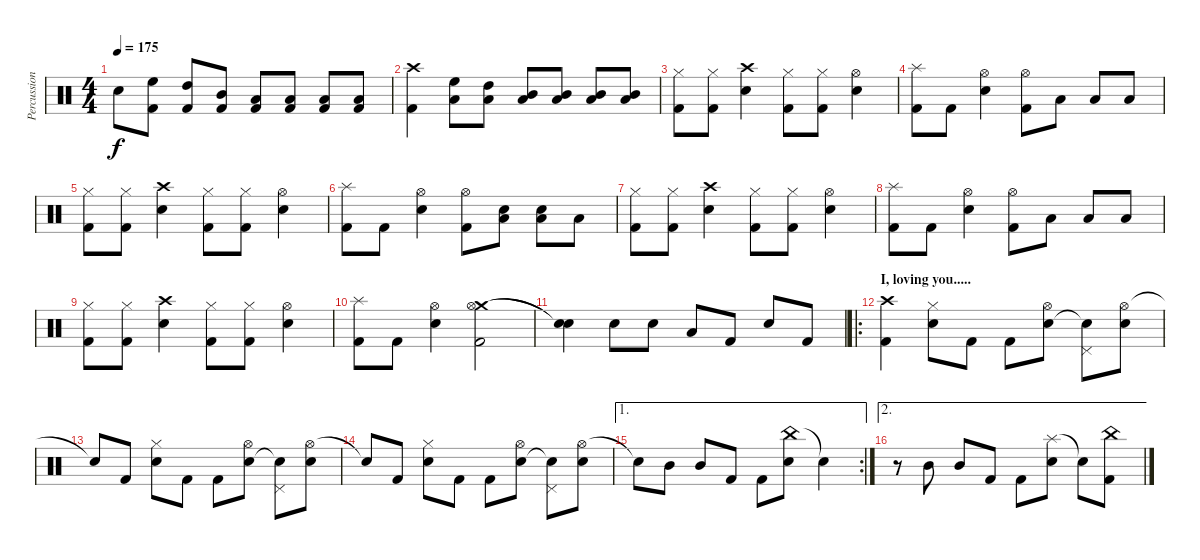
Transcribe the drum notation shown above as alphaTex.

\track ("Percussion" "Percussion") {instrument percussion}
\staff {score}
\articulation defaults
\ts (4 4)
\tempo 175
\clef neutral
\ks c "Snare (hit)"{t}.8{dy f}
("High Floor Tom (hit)" "Kick (hit) 2").8 ("High Tom (hit)" "Kick (hit) 2").8 ("Mid Tom (hit)" "Kick (hit) 2").8 ("Low Tom (hit)" "Kick (hit) 2").8 ("Low Tom (hit)" "Kick (hit) 2").8 ("Low Tom (hit)" "Kick (hit) 2").8 ("Low Tom (hit)" "Kick (hit) 2").8 |
("Crash high (hit)" "Kick (hit) 2").4 ("Low Tom (hit)" "High Floor Tom (hit)").8 ("Low Tom (hit)" "High Tom (hit)").8 ("Low Tom (hit)" "Mid Tom (hit)").8 ("Low Tom (hit)" "Mid Tom (hit)").8 ("Low Tom (hit)" "Mid Tom (hit)").8 ("Low Tom (hit)" "Mid Tom (hit)").8 |
("Hi-Hat (closed)" "Kick (hit) 2").8 ("Hi-Hat (closed)" "Kick (hit) 2").8 ("Crash high (hit)" "Snare (hit) 2").4 ("Hi-Hat (closed)" "Kick (hit) 2").8 ("Hi-Hat (closed)" "Kick (hit) 2").8 ("Hi-Hat (open)" "Snare (hit) 2").4 |
("Splash (hit)" "Kick (hit) 2").8 "Kick (hit) 2".8 ("Hi-Hat (open)" "Snare (hit) 2").4 ("Hi-Hat (open)" "Kick (hit) 2").8 "Low Tom (hit)".8 "Low Tom (hit)".8 "Low Tom (hit)".8 |
("Hi-Hat (closed)" "Kick (hit) 2").8 ("Hi-Hat (closed)" "Kick (hit) 2").8 ("Crash high (hit)" "Snare (hit) 2").4 ("Hi-Hat (closed)" "Kick (hit) 2").8 ("Hi-Hat (closed)" "Kick (hit) 2").8 ("Hi-Hat (open)" "Snare (hit) 2").4 |
("Splash (hit)" "Kick (hit) 2").8 "Kick (hit) 2".8 ("Hi-Hat (open)" "Snare (hit) 2").4 ("Hi-Hat (open)" "Kick (hit) 2").8 ("Low Tom (hit)" "Snare (hit) 2").8 ("Low Tom (hit)" "Snare (hit) 2").8 "Low Tom (hit)".8 |
("Hi-Hat (closed)" "Kick (hit) 2").8 ("Hi-Hat (closed)" "Kick (hit) 2").8 ("Crash high (hit)" "Snare (hit) 2").4 ("Hi-Hat (closed)" "Kick (hit) 2").8 ("Hi-Hat (closed)" "Kick (hit) 2").8 ("Hi-Hat (open)" "Snare (hit) 2").4 |
("Splash (hit)" "Kick (hit) 2").8 "Kick (hit) 2".8 ("Hi-Hat (open)" "Snare (hit) 2").4 ("Hi-Hat (open)" "Kick (hit) 2").8 "Low Tom (hit)".8 "Low Tom (hit)".8 "Low Tom (hit)".8 |
("Hi-Hat (closed)" "Kick (hit) 2").8 ("Hi-Hat (closed)" "Kick (hit) 2").8 ("Crash high (hit)" "Snare (hit) 2").4 ("Hi-Hat (closed)" "Kick (hit) 2").8 ("Hi-Hat (closed)" "Kick (hit) 2").8 ("Hi-Hat (open)" "Snare (hit) 2").4 |
("Splash (hit)" "Kick (hit) 2").8 "Kick (hit) 2".8 ("Hi-Hat (open)" "Snare (hit) 2").4 ("Crash medium (hit)" "Hi-Hat (open)" "Kick (hit) 2").2 |
("Snare (hit)"{t} "Snare (hit)"{t}).4 "Snare (hit) 2".8 "Snare (hit) 2".8 "Low Tom (hit)".8 "Kick (hit) 2".8 "Snare (hit) 2".8 "Kick (hit) 2".8 |
\ro
\section ("" "I, loving you.....")
("Crash high (hit)" "Kick (hit) 2").4 ("Hi-Hat (closed)" "Snare (hit) 2").8 "Kick (hit) 2".8 "Kick (hit) 2".8 ("Hi-Hat (open)" "Snare (hit) 2").8 ("Pedal Hi-Hat (hit)" "Snare (hit)"{t}).8 ("Hi-Hat (open)" "Snare (hit) 2").8 |
"Snare (hit)"{t}.8 "Kick (hit) 2".8 ("Hi-Hat (closed)" "Snare (hit) 2").8 "Kick (hit) 2".8 "Kick (hit) 2".8 ("Hi-Hat (open)" "Snare (hit) 2").8 ("Pedal Hi-Hat (hit)" "Snare (hit)"{t}).8 ("Hi-Hat (open)" "Snare (hit) 2").8 |
"Snare (hit)"{t}.8 "Kick (hit) 2".8 ("Hi-Hat (closed)" "Snare (hit) 2").8 "Kick (hit) 2".8 "Kick (hit) 2".8 ("Hi-Hat (open)" "Snare (hit) 2").8 ("Pedal Hi-Hat (hit)" "Snare (hit)"{t}).8 ("Hi-Hat (open)" "Snare (hit) 2").8 |
\ae 1
\rc 2 "Snare (hit)"{t}.8 "Mid Tom (hit)".8 "Mid Tom (hit)".8 "Kick (hit) 2".8 "Kick (hit) 2".8
("China (hit)" "Snare (hit) 2").8 "Snare (hit)"{t}.4 |
\ae 2
r.8 "Mid Tom (hit)".8 "Mid Tom (hit)".8 "Kick (hit) 2".8 "Kick (hit) 2".8 ("Splash (hit)" "Snare (hit) 2").8 "Snare (hit)"{t}.8 ("China (hit)" "Kick (hit) 2").8
